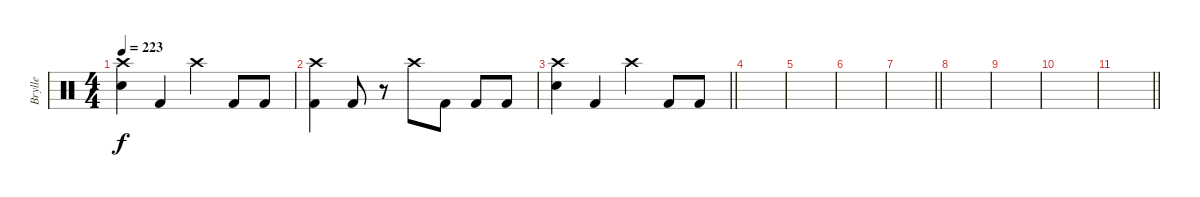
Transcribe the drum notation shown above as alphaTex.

\track ("Brylle" "Brylle") {instrument percussion}
\staff {score}
\articulation defaults
\ts (4 4)
\tempo 223
\clef neutral
\ks c
("Crash high (hit)" "Electric Snare (hit)").4{dy f} "Kick (hit) 2".4 "Crash high (hit)".4 "Kick (hit) 2".8 "Kick (hit) 2".8 |
("Crash high (hit)" "Kick (hit) 2").4 "Kick (hit) 2".8 r.8 "Crash high (hit)".8 "Kick (hit) 2".8 "Kick (hit) 2".8 "Kick (hit) 2".8 |
\barLineRight lightlight
("Crash high (hit)" "Electric Snare (hit)").4 "Kick (hit) 2".4 "Crash high (hit)".4 "Kick (hit) 2".8 "Kick (hit) 2".8 |
|
|
|
\barLineRight lightlight
|
|
|
|
\barLineRight lightlight
